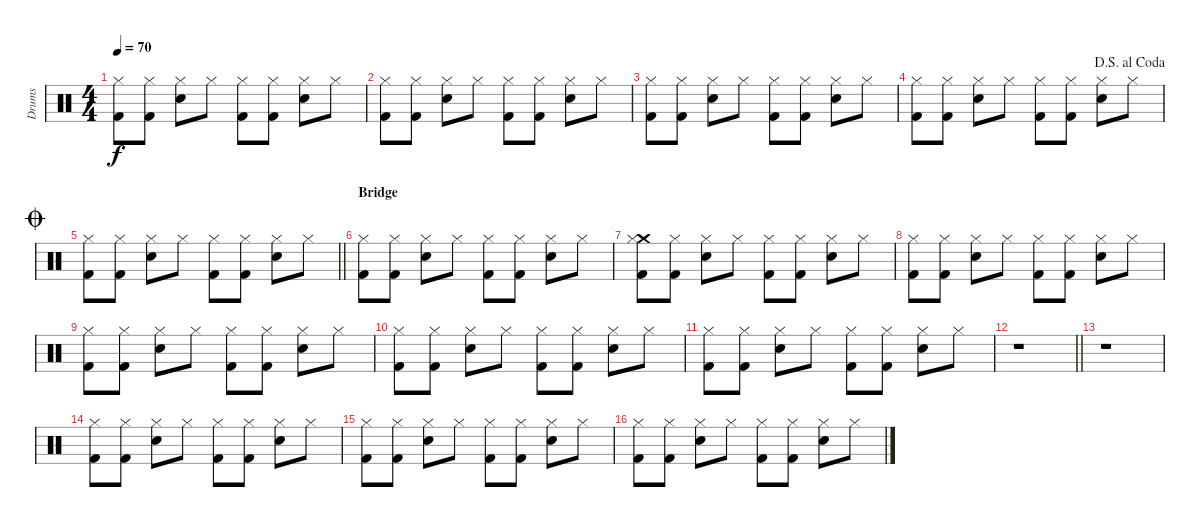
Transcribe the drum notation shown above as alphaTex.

\track ("Drums" "Drums") {instrument percussion bank 177}
\staff {score}
\articulation defaults
\ts (4 4)
\tempo 70
\clef neutral
\ks c
("Kick (hit) 2" "Hi-Hat (closed)").8{dy f} ("Hi-Hat (closed)" "Kick (hit) 2").8 ("Hi-Hat (closed)" "Snare (hit) 2").8 "Hi-Hat (closed)".8 ("Kick (hit) 2" "Hi-Hat (closed)").8 ("Hi-Hat (closed)" "Kick (hit) 2").8 ("Hi-Hat (closed)" "Snare (hit) 2").8 "Hi-Hat (closed)".8 |
("Kick (hit) 2" "Hi-Hat (closed)").8 ("Hi-Hat (closed)" "Kick (hit) 2").8 ("Hi-Hat (closed)" "Snare (hit) 2").8 "Hi-Hat (closed)".8 ("Kick (hit) 2" "Hi-Hat (closed)").8 ("Hi-Hat (closed)" "Kick (hit) 2").8 ("Hi-Hat (closed)" "Snare (hit) 2").8 "Hi-Hat (closed)".8 |
("Kick (hit) 2" "Hi-Hat (closed)").8 ("Hi-Hat (closed)" "Kick (hit) 2").8 ("Hi-Hat (closed)" "Snare (hit) 2").8 "Hi-Hat (closed)".8 ("Kick (hit) 2" "Hi-Hat (closed)").8 ("Hi-Hat (closed)" "Kick (hit) 2").8 ("Hi-Hat (closed)" "Snare (hit) 2").8 "Hi-Hat (closed)".8 |
\jump dalsegnoalcoda
("Kick (hit) 2" "Hi-Hat (closed)").8 ("Hi-Hat (closed)" "Kick (hit) 2").8 ("Hi-Hat (closed)" "Snare (hit) 2").8 "Hi-Hat (closed)".8 ("Kick (hit) 2" "Hi-Hat (closed)").8 ("Hi-Hat (closed)" "Kick (hit) 2").8 ("Hi-Hat (closed)" "Snare (hit) 2").8 "Hi-Hat (closed)".8 |
\jump coda
\barLineRight lightlight
("Kick (hit) 2" "Hi-Hat (closed)").8 ("Hi-Hat (closed)" "Kick (hit) 2").8 ("Hi-Hat (closed)" "Snare (hit) 2").8 "Hi-Hat (closed)".8 ("Kick (hit) 2" "Hi-Hat (closed)").8 ("Hi-Hat (closed)" "Kick (hit) 2").8 ("Hi-Hat (closed)" "Snare (hit) 2").8 "Hi-Hat (closed)".8 |
\section ("" "Bridge")
("Kick (hit) 2" "Hi-Hat (closed)").8 ("Hi-Hat (closed)" "Kick (hit) 2").8 ("Hi-Hat (closed)" "Snare (hit) 2").8 "Hi-Hat (closed)".8 ("Kick (hit) 2" "Hi-Hat (closed)").8 ("Hi-Hat (closed)" "Kick (hit) 2").8 ("Hi-Hat (closed)" "Snare (hit) 2").8 "Hi-Hat (closed)".8 |
("Kick (hit) 2" "Crash medium (hit)" "Hi-Hat (closed)").8 ("Hi-Hat (closed)" "Kick (hit) 2").8 ("Hi-Hat (closed)" "Snare (hit) 2").8 "Hi-Hat (closed)".8 ("Kick (hit) 2" "Hi-Hat (closed)").8 ("Hi-Hat (closed)" "Kick (hit) 2").8 ("Hi-Hat (closed)" "Snare (hit) 2").8 "Hi-Hat (closed)".8 |
("Kick (hit) 2" "Hi-Hat (closed)").8 ("Hi-Hat (closed)" "Kick (hit) 2").8 ("Hi-Hat (closed)" "Snare (hit) 2").8 "Hi-Hat (closed)".8 ("Kick (hit) 2" "Hi-Hat (closed)").8 ("Hi-Hat (closed)" "Kick (hit) 2").8 ("Hi-Hat (closed)" "Snare (hit) 2").8 "Hi-Hat (closed)".8 |
("Kick (hit) 2" "Hi-Hat (closed)").8 ("Hi-Hat (closed)" "Kick (hit) 2").8 ("Hi-Hat (closed)" "Snare (hit) 2").8 "Hi-Hat (closed)".8 ("Kick (hit) 2" "Hi-Hat (closed)").8 ("Hi-Hat (closed)" "Kick (hit) 2").8 ("Hi-Hat (closed)" "Snare (hit) 2").8 "Hi-Hat (closed)".8 |
("Kick (hit) 2" "Hi-Hat (closed)").8 ("Hi-Hat (closed)" "Kick (hit) 2").8 ("Hi-Hat (closed)" "Snare (hit) 2").8 "Hi-Hat (closed)".8 ("Kick (hit) 2" "Hi-Hat (closed)").8 ("Hi-Hat (closed)" "Kick (hit) 2").8 ("Hi-Hat (closed)" "Snare (hit) 2").8 "Hi-Hat (closed)".8 |
("Kick (hit) 2" "Hi-Hat (closed)").8 ("Hi-Hat (closed)" "Kick (hit) 2").8 ("Hi-Hat (closed)" "Snare (hit) 2").8 "Hi-Hat (closed)".8 ("Kick (hit) 2" "Hi-Hat (closed)").8 ("Hi-Hat (closed)" "Kick (hit) 2").8 ("Hi-Hat (closed)" "Snare (hit) 2").8 "Hi-Hat (closed)".8 |
\barLineRight lightlight
r.1 |
r.1 |
("Kick (hit) 2" "Hi-Hat (closed)").8 ("Hi-Hat (closed)" "Kick (hit) 2").8 ("Hi-Hat (closed)" "Snare (hit) 2").8 "Hi-Hat (closed)".8 ("Kick (hit) 2" "Hi-Hat (closed)").8 ("Hi-Hat (closed)" "Kick (hit) 2").8 ("Hi-Hat (closed)" "Snare (hit) 2").8 "Hi-Hat (closed)".8 |
("Kick (hit) 2" "Hi-Hat (closed)").8 ("Hi-Hat (closed)" "Kick (hit) 2").8 ("Hi-Hat (closed)" "Snare (hit) 2").8 "Hi-Hat (closed)".8 ("Kick (hit) 2" "Hi-Hat (closed)").8 ("Hi-Hat (closed)" "Kick (hit) 2").8 ("Hi-Hat (closed)" "Snare (hit) 2").8 "Hi-Hat (closed)".8 |
("Kick (hit) 2" "Hi-Hat (closed)").8 ("Hi-Hat (closed)" "Kick (hit) 2").8 ("Hi-Hat (closed)" "Snare (hit) 2").8 "Hi-Hat (closed)".8 ("Kick (hit) 2" "Hi-Hat (closed)").8 ("Hi-Hat (closed)" "Kick (hit) 2").8 ("Hi-Hat (closed)" "Snare (hit) 2").8 "Hi-Hat (closed)".8
